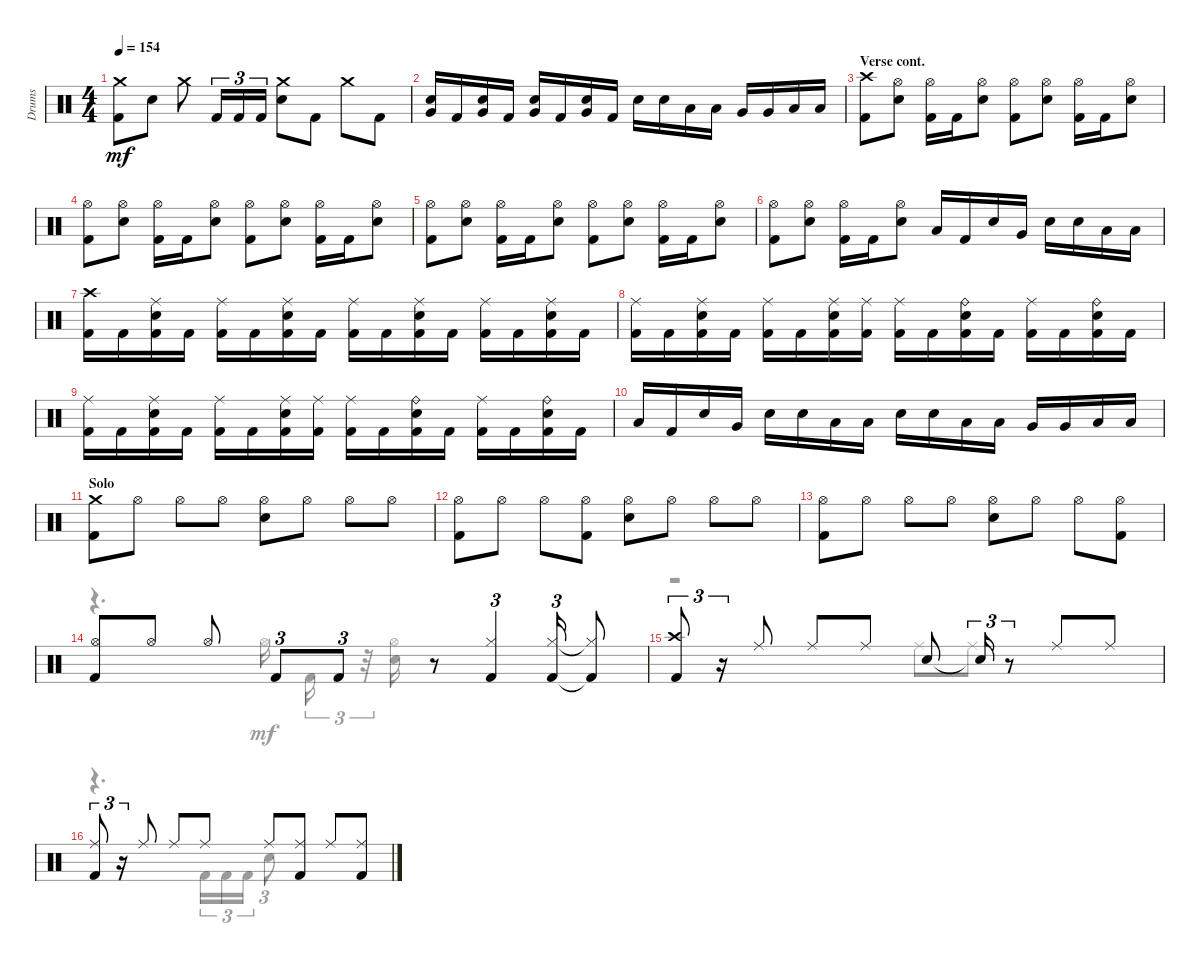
\track ("Drums" "Drums") {instrument percussion}
\staff {score}
\articulation defaults
\voice
\ts (4 4)
\tempo 154
\clef neutral
\ks aminor
("Kick (hit) 2" "Crash medium (hit)").8{dy mf} "Snare (hit) 2".8 "Crash medium (hit)".8 "Kick (hit) 2".16{tu (3 2)} "Kick (hit) 2".16{tu (3 2)} "Kick (hit) 2".16{tu (3 2)} ("Crash medium (hit)" "Snare (hit) 2").8 "Kick (hit) 2".8 "Crash medium (hit)".8 "Kick (hit) 2".8 |
("Very Low Tom (hit)" "Snare (hit) 2").16 "Kick (hit) 2".16 ("Very Low Tom (hit)" "Snare (hit) 2").16 "Kick (hit) 2".16 ("Very Low Tom (hit)" "Snare (hit) 2").16 "Kick (hit) 2".16 ("Very Low Tom (hit)" "Snare (hit) 2").16 "Kick (hit) 2".16 "Snare (hit) 2".16 "Snare (hit) 2".16 "Low Tom (hit)".16 "Low Tom (hit)".16 "Very Low Tom (hit)".16 "Very Low Tom (hit)".16 "Low Floor Tom (hit)".16 "Low Floor Tom (hit)".16 |
\section ("" "Verse cont.")
("Kick (hit) 2" "Crash high (hit)").8 ("Hi-Hat (open)" "Snare (hit) 2").8 ("Kick (hit) 2" "Hi-Hat (open)").16 "Kick (hit) 2".16 ("Snare (hit) 2" "Hi-Hat (open)").8 ("Hi-Hat (open)" "Kick (hit) 2").8 ("Hi-Hat (open)" "Snare (hit) 2").8 ("Kick (hit) 2" "Hi-Hat (open)").16 "Kick (hit) 2".16 ("Snare (hit) 2" "Hi-Hat (open)").8 |
("Kick (hit) 2" "Hi-Hat (open)").8 ("Hi-Hat (open)" "Snare (hit) 2").8 ("Hi-Hat (open)" "Kick (hit) 2").16 "Kick (hit) 2".16 ("Snare (hit) 2" "Hi-Hat (open)").8 ("Hi-Hat (open)" "Kick (hit) 2").8 ("Hi-Hat (open)" "Snare (hit) 2").8 ("Hi-Hat (open)" "Kick (hit) 2").16 "Kick (hit) 2".16 ("Hi-Hat (open)" "Snare (hit) 2").8 |
("Hi-Hat (open)" "Kick (hit) 2").8 ("Snare (hit) 2" "Hi-Hat (open)").8 ("Kick (hit) 2" "Hi-Hat (open)").16 "Kick (hit) 2".16 ("Hi-Hat (open)" "Snare (hit) 2").8 ("Hi-Hat (open)" "Kick (hit) 2").8 ("Hi-Hat (open)" "Snare (hit) 2").8 ("Hi-Hat (open)" "Kick (hit) 2").16 "Kick (hit) 2".16 ("Snare (hit) 2" "Hi-Hat (open)").8 |
("Hi-Hat (open)" "Kick (hit) 2").8 ("Hi-Hat (open)" "Snare (hit) 2").8 ("Kick (hit) 2" "Hi-Hat (open)").16 "Kick (hit) 2".16 ("Snare (hit) 2" "Hi-Hat (open)").8 "Low Tom (hit)".16 "Kick (hit) 2".16 "Snare (hit) 2".16 "Very Low Tom (hit)".16 "Snare (hit) 2".16 "Snare (hit) 2".16 "Low Floor Tom (hit)".16 "Low Floor Tom (hit)".16 |
("Crash high (hit)" "Kick (hit) 2").16 "Kick (hit) 2".16 ("Snare (hit) 2" "Ride (middle)" "Kick (hit) 2").16 "Kick (hit) 2".16 ("Ride (middle)" "Kick (hit) 2").16 "Kick (hit) 2".16 ("Ride (middle)" "Snare (hit) 2" "Kick (hit) 2").16 "Kick (hit) 2".16 ("Ride (middle)" "Kick (hit) 2").16 "Kick (hit) 2".16 ("Snare (hit) 2" "Kick (hit) 2" "Ride (middle)").16 "Kick (hit) 2".16 ("Kick (hit) 2" "Ride (middle)").16 "Kick (hit) 2".16 ("Ride (middle)" "Snare (hit) 2" "Kick (hit) 2").16 "Kick (hit) 2".16 |
("Ride (middle)" "Kick (hit) 2").16 "Kick (hit) 2".16 ("Snare (hit) 2" "Kick (hit) 2" "Ride (middle)").16 "Kick (hit) 2".16 ("Kick (hit) 2" "Ride (middle)").16 "Kick (hit) 2".16 ("Snare (hit) 2" "Kick (hit) 2" "Ride (middle)").16 ("Ride (middle)" "Kick (hit) 2").16 ("Kick (hit) 2" "Ride (middle)").16 "Kick (hit) 2".16 ("Ride (bell)" "Kick (hit) 2" "Snare (hit) 2").16 "Kick (hit) 2".16 ("Ride (middle)" "Kick (hit) 2").16 "Kick (hit) 2".16 ("Kick (hit) 2" "Ride (bell)" "Snare (hit) 2").16 "Kick (hit) 2".16 |
("Kick (hit) 2" "Ride (middle)").16 "Kick (hit) 2".16 ("Kick (hit) 2" "Snare (hit) 2" "Ride (middle)").16 "Kick (hit) 2".16 ("Ride (middle)" "Kick (hit) 2").16 "Kick (hit) 2".16 ("Snare (hit) 2" "Ride (middle)" "Kick (hit) 2").16 ("Ride (middle)" "Kick (hit) 2").16 ("Ride (middle)" "Kick (hit) 2").16 "Kick (hit) 2".16 ("Ride (bell)" "Kick (hit) 2" "Snare (hit) 2").16 "Kick (hit) 2".16 ("Ride (middle)" "Kick (hit) 2").16 "Kick (hit) 2".16 ("Kick (hit) 2" "Snare (hit) 2" "Ride (bell)").16 "Kick (hit) 2".16 |
"Low Tom (hit)".16 "Kick (hit) 2".16 "Snare (hit) 2".16 "Very Low Tom (hit)".16 "Snare (hit) 2".16 "Snare (hit) 2".16 "Low Floor Tom (hit)".16 "Low Floor Tom (hit)".16 "Snare (hit) 2".16 "Snare (hit) 2".16 "Low Tom (hit)".16 "Low Tom (hit)".16 "Very Low Tom (hit)".16 "Very Low Tom (hit)".16 "Low Floor Tom (hit)".16 "Low Floor Tom (hit)".16 |
\section ("" "Solo")
("Kick (hit) 2" "Crash medium (hit)").8 "Hi-Hat (open)".8 "Hi-Hat (open)".8 "Hi-Hat (open)".8 ("Snare (hit) 2" "Hi-Hat (open)").8 "Hi-Hat (open)".8 "Hi-Hat (open)".8 "Hi-Hat (open)".8 |
("Hi-Hat (open)" "Kick (hit) 2").8 "Hi-Hat (open)".8 "Hi-Hat (open)".8 ("Hi-Hat (open)" "Kick (hit) 2").8 ("Hi-Hat (open)" "Snare (hit) 2").8 "Hi-Hat (open)".8 "Hi-Hat (open)".8 "Hi-Hat (open)".8 |
("Kick (hit) 2" "Hi-Hat (open)").8 "Hi-Hat (open)".8 "Hi-Hat (open)".8 "Hi-Hat (open)".8 ("Hi-Hat (open)" "Snare (hit) 2").8 "Hi-Hat (open)".8 "Hi-Hat (open)".8 ("Hi-Hat (open)" "Kick (hit) 2").8 |
("Kick (hit) 2" "Hi-Hat (open)").8 "Hi-Hat (open)".8 "Hi-Hat (open)".8 "Kick (hit) 2".8{tu (3 2)} "Kick (hit) 2".8{tu (3 2)} r.8 ("Hi-Hat (closed)" "Kick (hit) 2").4{tu (3 2)} ("Kick (hit) 2" "Hi-Hat (closed)").16{tu (3 2)} ("Kick (hit) 2"{t} "Hi-Hat (closed)"{t}).8 |
("Kick (hit) 2" "Crash high (hit)").8{tu (3 2)} r.16{tu (3 2)} "Ride (middle)".8 "Ride (middle)".8 "Ride (middle)".8 "Snare (hit) 2".8 "Snare (hit) 2"{t}.16{tu (3 2)} r.8{tu (3 2)} "Ride (middle)".8 "Ride (middle)".8 |
("Ride (middle)" "Kick (hit) 2").8{tu (3 2)} r.16{tu (3 2)} "Ride (middle)".8 "Ride (middle)".8 "Ride (middle)".8 "Ride (middle)".8 ("Kick (hit) 2" "Ride (middle)").8 "Ride (middle)".8 ("Ride (middle)" "Kick (hit) 2").8
\voice
\clef neutral
\ottava regular
\simile none
\ks aminor
|
|
|
|
|
|
|
|
|
|
|
|
|
r.4{d} "Hi-Hat (open)".16 "Kick (hit) 2".16{tu (3 2)} r.32{tu (3 2)} ("Snare (hit) 2" "Hi-Hat (open)").16 |
r.2 "Ride (middle)".8 "Ride (middle)".8 |
r.4{d} "Kick (hit) 2".16{tu (3 2)} "Kick (hit) 2".16{tu (3 2)} "Kick (hit) 2".16{tu (3 2)} "Snare (hit) 2".8{tu (3 2)}
